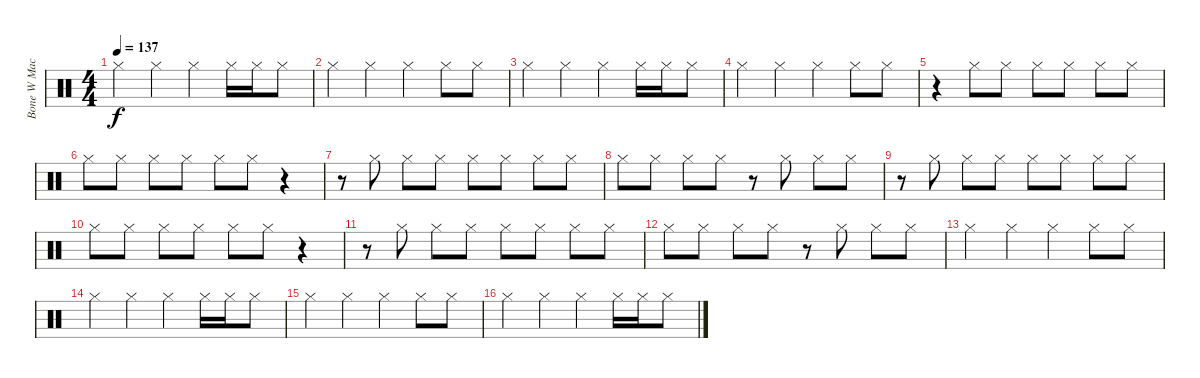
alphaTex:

\track ("Bone W Machine Cimbals" "Bone W Mac") {instrument percussion}
\staff {score}
\articulation defaults
\ts (4 4)
\tempo 137
\clef neutral
\ks c "Hi-Hat (closed)".4{dy f} "Hi-Hat (closed)".4 "Hi-Hat (closed)".4 "Hi-Hat (closed)".16 "Hi-Hat (closed)".16 "Hi-Hat (closed)".8
|
"Hi-Hat (closed)".4 "Hi-Hat (closed)".4 "Hi-Hat (closed)".4 "Hi-Hat (closed)".8 "Hi-Hat (closed)".8 |
"Hi-Hat (closed)".4 "Hi-Hat (closed)".4 "Hi-Hat (closed)".4 "Hi-Hat (closed)".16 "Hi-Hat (closed)".16 "Hi-Hat (closed)".8 |
"Hi-Hat (closed)".4 "Hi-Hat (closed)".4 "Hi-Hat (closed)".4 "Hi-Hat (closed)".8 "Hi-Hat (closed)".8 |
r.4 "Hi-Hat (closed)".8 "Hi-Hat (closed)".8 "Hi-Hat (closed)".8 "Hi-Hat (closed)".8 "Hi-Hat (closed)".8 "Hi-Hat (closed)".8 |
"Hi-Hat (closed)".8 "Hi-Hat (closed)".8 "Hi-Hat (closed)".8 "Hi-Hat (closed)".8 "Hi-Hat (closed)".8 "Hi-Hat (closed)".8 r.4 |
r.8 "Hi-Hat (closed)".8 "Hi-Hat (closed)".8 "Hi-Hat (closed)".8 "Hi-Hat (closed)".8 "Hi-Hat (closed)".8 "Hi-Hat (closed)".8 "Hi-Hat (closed)".8 |
"Hi-Hat (closed)".8 "Hi-Hat (closed)".8 "Hi-Hat (closed)".8 "Hi-Hat (closed)".8 r.8 "Hi-Hat (closed)".8 "Hi-Hat (closed)".8 "Hi-Hat (closed)".8 |
r.8 "Hi-Hat (closed)".8 "Hi-Hat (closed)".8 "Hi-Hat (closed)".8 "Hi-Hat (closed)".8 "Hi-Hat (closed)".8 "Hi-Hat (closed)".8 "Hi-Hat (closed)".8 |
"Hi-Hat (closed)".8 "Hi-Hat (closed)".8 "Hi-Hat (closed)".8 "Hi-Hat (closed)".8 "Hi-Hat (closed)".8 "Hi-Hat (closed)".8 r.4 |
r.8 "Hi-Hat (closed)".8 "Hi-Hat (closed)".8 "Hi-Hat (closed)".8 "Hi-Hat (closed)".8 "Hi-Hat (closed)".8 "Hi-Hat (closed)".8 "Hi-Hat (closed)".8 |
"Hi-Hat (closed)".8 "Hi-Hat (closed)".8 "Hi-Hat (closed)".8 "Hi-Hat (closed)".8 r.8 "Hi-Hat (closed)".8 "Hi-Hat (closed)".8 "Hi-Hat (closed)".8 |
"Hi-Hat (closed)".4 "Hi-Hat (closed)".4 "Hi-Hat (closed)".4 "Hi-Hat (closed)".8 "Hi-Hat (closed)".8 |
"Hi-Hat (closed)".4 "Hi-Hat (closed)".4 "Hi-Hat (closed)".4 "Hi-Hat (closed)".16 "Hi-Hat (closed)".16 "Hi-Hat (closed)".8 |
"Hi-Hat (closed)".4 "Hi-Hat (closed)".4 "Hi-Hat (closed)".4 "Hi-Hat (closed)".8 "Hi-Hat (closed)".8 |
"Hi-Hat (closed)".4 "Hi-Hat (closed)".4 "Hi-Hat (closed)".4 "Hi-Hat (closed)".16 "Hi-Hat (closed)".16 "Hi-Hat (closed)".8
